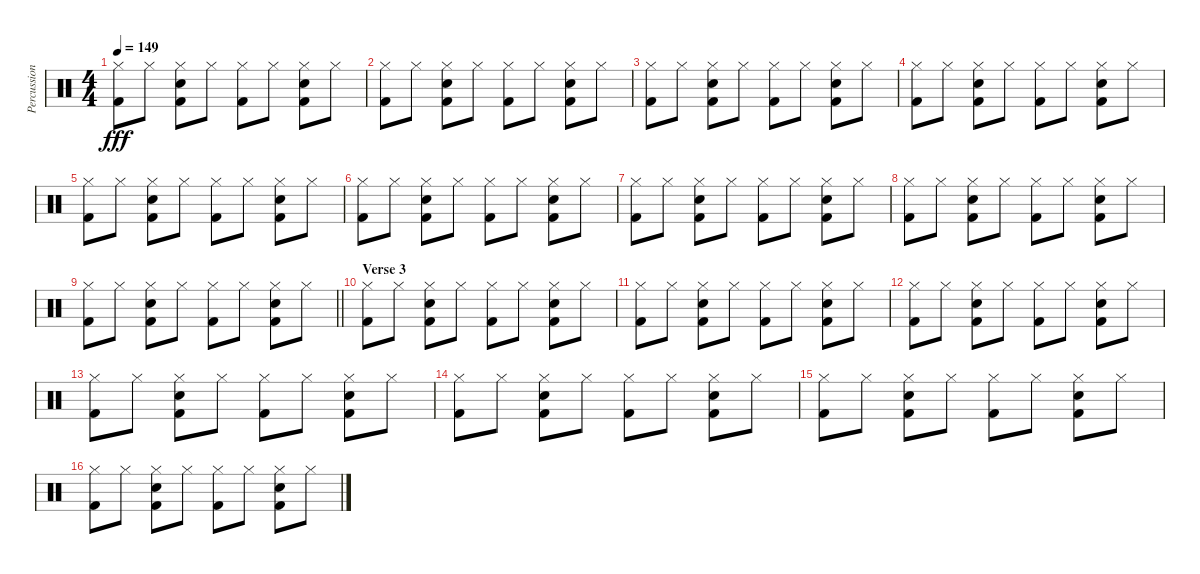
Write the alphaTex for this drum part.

\track ("Percussion" "Percussion") {instrument percussion}
\staff {score}
\articulation defaults
\ts (4 4)
\tempo 149
\clef neutral
\ks c
("Hi-Hat (closed)" "Kick (hit) 2").8{dy fff} "Hi-Hat (closed)".8 ("Hi-Hat (closed)" "Snare (hit) 2" "Kick (hit) 2").8 "Hi-Hat (closed)".8 ("Hi-Hat (closed)" "Kick (hit) 2").8 "Hi-Hat (closed)".8 ("Hi-Hat (closed)" "Snare (hit) 2" "Kick (hit) 2").8 "Hi-Hat (closed)".8 |
("Hi-Hat (closed)" "Kick (hit) 2").8 "Hi-Hat (closed)".8 ("Hi-Hat (closed)" "Snare (hit) 2" "Kick (hit) 2").8 "Hi-Hat (closed)".8 ("Hi-Hat (closed)" "Kick (hit) 2").8 "Hi-Hat (closed)".8 ("Hi-Hat (closed)" "Snare (hit) 2" "Kick (hit) 2").8 "Hi-Hat (closed)".8 |
("Hi-Hat (closed)" "Kick (hit) 2").8 "Hi-Hat (closed)".8 ("Hi-Hat (closed)" "Snare (hit) 2" "Kick (hit) 2").8 "Hi-Hat (closed)".8 ("Hi-Hat (closed)" "Kick (hit) 2").8 "Hi-Hat (closed)".8 ("Hi-Hat (closed)" "Snare (hit) 2" "Kick (hit) 2").8 "Hi-Hat (closed)".8 |
("Hi-Hat (closed)" "Kick (hit) 2").8 "Hi-Hat (closed)".8 ("Hi-Hat (closed)" "Snare (hit) 2" "Kick (hit) 2").8 "Hi-Hat (closed)".8 ("Hi-Hat (closed)" "Kick (hit) 2").8 "Hi-Hat (closed)".8 ("Hi-Hat (closed)" "Snare (hit) 2" "Kick (hit) 2").8 "Hi-Hat (closed)".8 |
("Hi-Hat (closed)" "Kick (hit) 2").8 "Hi-Hat (closed)".8 ("Hi-Hat (closed)" "Snare (hit) 2" "Kick (hit) 2").8 "Hi-Hat (closed)".8 ("Hi-Hat (closed)" "Kick (hit) 2").8 "Hi-Hat (closed)".8 ("Hi-Hat (closed)" "Snare (hit) 2" "Kick (hit) 2").8 "Hi-Hat (closed)".8 |
("Hi-Hat (closed)" "Kick (hit) 2").8 "Hi-Hat (closed)".8 ("Hi-Hat (closed)" "Snare (hit) 2" "Kick (hit) 2").8 "Hi-Hat (closed)".8 ("Hi-Hat (closed)" "Kick (hit) 2").8 "Hi-Hat (closed)".8 ("Hi-Hat (closed)" "Snare (hit) 2" "Kick (hit) 2").8 "Hi-Hat (closed)".8 |
("Hi-Hat (closed)" "Kick (hit) 2").8 "Hi-Hat (closed)".8 ("Hi-Hat (closed)" "Snare (hit) 2" "Kick (hit) 2").8 "Hi-Hat (closed)".8 ("Hi-Hat (closed)" "Kick (hit) 2").8 "Hi-Hat (closed)".8 ("Hi-Hat (closed)" "Snare (hit) 2" "Kick (hit) 2").8 "Hi-Hat (closed)".8 |
("Hi-Hat (closed)" "Kick (hit) 2").8 "Hi-Hat (closed)".8 ("Hi-Hat (closed)" "Snare (hit) 2" "Kick (hit) 2").8 "Hi-Hat (closed)".8 ("Hi-Hat (closed)" "Kick (hit) 2").8 "Hi-Hat (closed)".8 ("Hi-Hat (closed)" "Snare (hit) 2" "Kick (hit) 2").8 "Hi-Hat (closed)".8 |
\barLineRight lightlight
("Hi-Hat (closed)" "Kick (hit) 2").8 "Hi-Hat (closed)".8 ("Hi-Hat (closed)" "Snare (hit) 2" "Kick (hit) 2").8 "Hi-Hat (closed)".8 ("Hi-Hat (closed)" "Kick (hit) 2").8 "Hi-Hat (closed)".8 ("Hi-Hat (closed)" "Snare (hit) 2" "Kick (hit) 2").8 "Hi-Hat (closed)".8 |
\section ("" "Verse 3")
("Hi-Hat (closed)" "Kick (hit) 2").8 "Hi-Hat (closed)".8 ("Hi-Hat (closed)" "Snare (hit) 2" "Kick (hit) 2").8 "Hi-Hat (closed)".8 ("Hi-Hat (closed)" "Kick (hit) 2").8 "Hi-Hat (closed)".8 ("Hi-Hat (closed)" "Snare (hit) 2" "Kick (hit) 2").8 "Hi-Hat (closed)".8 |
("Hi-Hat (closed)" "Kick (hit) 2").8 "Hi-Hat (closed)".8 ("Hi-Hat (closed)" "Snare (hit) 2" "Kick (hit) 2").8 "Hi-Hat (closed)".8 ("Hi-Hat (closed)" "Kick (hit) 2").8 "Hi-Hat (closed)".8 ("Hi-Hat (closed)" "Snare (hit) 2" "Kick (hit) 2").8 "Hi-Hat (closed)".8 |
("Hi-Hat (closed)" "Kick (hit) 2").8 "Hi-Hat (closed)".8 ("Hi-Hat (closed)" "Snare (hit) 2" "Kick (hit) 2").8 "Hi-Hat (closed)".8 ("Hi-Hat (closed)" "Kick (hit) 2").8 "Hi-Hat (closed)".8 ("Hi-Hat (closed)" "Snare (hit) 2" "Kick (hit) 2").8 "Hi-Hat (closed)".8 |
("Hi-Hat (closed)" "Kick (hit) 2").8 "Hi-Hat (closed)".8 ("Hi-Hat (closed)" "Snare (hit) 2" "Kick (hit) 2").8 "Hi-Hat (closed)".8 ("Hi-Hat (closed)" "Kick (hit) 2").8 "Hi-Hat (closed)".8 ("Hi-Hat (closed)" "Snare (hit) 2" "Kick (hit) 2").8 "Hi-Hat (closed)".8 |
("Hi-Hat (closed)" "Kick (hit) 2").8 "Hi-Hat (closed)".8 ("Hi-Hat (closed)" "Snare (hit) 2" "Kick (hit) 2").8 "Hi-Hat (closed)".8 ("Hi-Hat (closed)" "Kick (hit) 2").8 "Hi-Hat (closed)".8 ("Hi-Hat (closed)" "Snare (hit) 2" "Kick (hit) 2").8 "Hi-Hat (closed)".8 |
("Hi-Hat (closed)" "Kick (hit) 2").8 "Hi-Hat (closed)".8 ("Hi-Hat (closed)" "Snare (hit) 2" "Kick (hit) 2").8 "Hi-Hat (closed)".8 ("Hi-Hat (closed)" "Kick (hit) 2").8 "Hi-Hat (closed)".8 ("Hi-Hat (closed)" "Snare (hit) 2" "Kick (hit) 2").8 "Hi-Hat (closed)".8 |
("Hi-Hat (closed)" "Kick (hit) 2").8 "Hi-Hat (closed)".8 ("Hi-Hat (closed)" "Snare (hit) 2" "Kick (hit) 2").8 "Hi-Hat (closed)".8 ("Hi-Hat (closed)" "Kick (hit) 2").8 "Hi-Hat (closed)".8 ("Hi-Hat (closed)" "Snare (hit) 2" "Kick (hit) 2").8 "Hi-Hat (closed)".8
